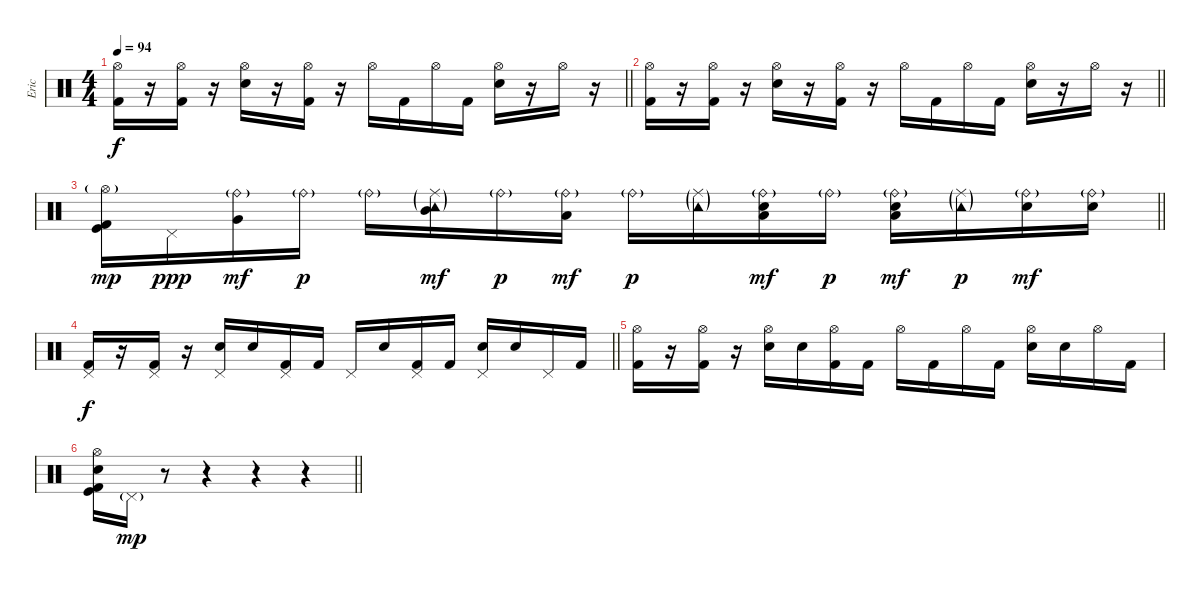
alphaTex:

\track ("Eric" "Eric") {instrument percussion}
\staff {score}
\articulation defaults
\ts (4 4)
\tempo 94
\clef neutral
\barLineRight lightlight
\ks c
("Hi-Hat (open)" "Kick (hit) 2").16{dy f} r.16 ("Hi-Hat (open)" "Kick (hit) 2").16 r.16 ("Hi-Hat (open)" "Electric Snare (hit)").16 r.16 ("Hi-Hat (open)" "Kick (hit) 2").16 r.16 "Hi-Hat (open)".16 "Kick (hit) 2".16 "Hi-Hat (open)".16 "Kick (hit) 2".16 ("Hi-Hat (open)" "Electric Snare (hit)").16 r.16 "Hi-Hat (open)".16 r.16 |
\barLineRight lightlight
("Hi-Hat (open)" "Kick (hit) 2").16 r.16 ("Hi-Hat (open)" "Kick (hit) 2").16 r.16 ("Hi-Hat (open)" "Electric Snare (hit)").16 r.16 ("Hi-Hat (open)" "Kick (hit) 2").16 r.16 "Hi-Hat (open)".16 "Kick (hit) 2".16 "Hi-Hat (open)".16 "Kick (hit) 2".16 ("Hi-Hat (open)" "Electric Snare (hit)").16 r.16 "Hi-Hat (open)".16 r.16 |
\barLineRight lightlight
("Hi-Hat (open)"{g} "Kick (hit)" "Kick (hit) 2").16{dy mp} "Pedal Hi-Hat (hit)".16{dy ppp} ("Ride (bell)"{g} "Very Low Tom (hit)").16{dy mf} "Ride (bell)"{g}.16{dy p} "Ride (bell)"{g}.16 ("Ride (middle)"{g} "Tambourine (hit)"{g} "Mid Tom (hit)").16{dy mf} "Ride (bell)"{g}.16{dy p} ("Ride (bell)"{g} "Low Tom (hit)").16{dy mf} "Ride (bell)"{g}.16{dy p} ("Ride (middle)"{g} "Tambourine (hit)"{g}).16 ("Ride (bell)"{g} "Low Tom (hit)" "Electric Snare (hit)").16{dy mf} "Ride (bell)"{g}.16{dy p} ("Ride (bell)"{g} "Low Tom (hit)" "Electric Snare (hit)").16{dy mf} ("Ride (middle)"{g} "Tambourine (hit)"{g}).16{dy p} ("Ride (bell)"{g} "Electric Snare (hit)").16{dy mf} ("Ride (bell)"{g} "Electric Snare (hit)").16 |
\barLineRight lightlight
("Pedal Hi-Hat (hit)" "Kick (hit) 2").16{dy f} r.16 ("Pedal Hi-Hat (hit)" "Kick (hit) 2").16 r.16 ("Pedal Hi-Hat (hit)" "Electric Snare (hit)").16 "Electric Snare (hit)".16 ("Pedal Hi-Hat (hit)" "Kick (hit) 2").16 "Kick (hit) 2".16 "Pedal Hi-Hat (hit)".16 "Electric Snare (hit)".16 ("Pedal Hi-Hat (hit)" "Kick (hit) 2").16 "Kick (hit) 2".16 ("Pedal Hi-Hat (hit)" "Electric Snare (hit)").16 "Electric Snare (hit)".16 "Pedal Hi-Hat (hit)".16 "Kick (hit) 2".16 |
\section ("" "")
("Hi-Hat (open)" "Kick (hit) 2").16 r.16 ("Hi-Hat (open)" "Kick (hit) 2").16 r.16 ("Hi-Hat (open)" "Electric Snare (hit)").16 "Electric Snare (hit)".16 ("Hi-Hat (open)" "Kick (hit) 2").16 "Kick (hit) 2".16 "Hi-Hat (open)".16 "Kick (hit) 2".16 "Hi-Hat (open)".16 "Kick (hit) 2".16 ("Hi-Hat (open)" "Electric Snare (hit)").16 "Electric Snare (hit)".16 "Hi-Hat (open)".16 "Kick (hit) 2".16 |
\barLineRight lightlight
("Hi-Hat (open)" "Electric Snare (hit)" "Kick (hit)" "Kick (hit) 2").16 "Pedal Hi-Hat (hit)"{g}.16{dy mp} r.8 r.4 r.4 r.4
